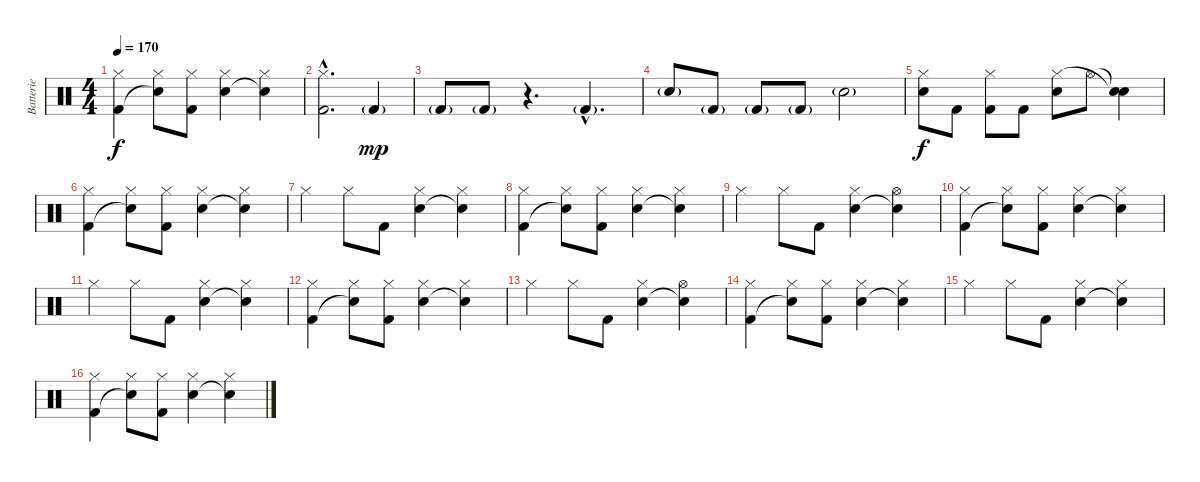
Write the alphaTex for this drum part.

\track ("Batterie" "Batterie") {instrument percussion}
\staff {score}
\articulation defaults
\ts (4 4)
\tempo 170
\clef neutral
\ks c
("Kick (hit) 2" "Hi-Hat (closed)").4{dy f} ("Snare (hit)"{t} "Hi-Hat (closed)").8 ("Kick (hit) 2" "Hi-Hat (closed)").8 ("Snare (hit) 2" "Hi-Hat (closed)").4 ("Snare (hit)"{t} "Hi-Hat (closed)").4 |
("Kick (hit) 2"{hac} "Hi-Hat (closed)"{hac}).2{d} "Kick (hit) 2"{g}.4{dy mp} |
"Kick (hit) 2"{g}.8 "Kick (hit) 2"{g}.8 r.4{d} "Kick (hit) 2"{g hac}.4{d} |
"Snare (hit) 2"{g}.8 "Kick (hit) 2"{g}.8 "Kick (hit) 2"{g}.8 "Kick (hit) 2"{g}.8 "Snare (hit) 2"{g}.2 |
("Snare (hit) 2" "Hi-Hat (closed)").8{dy f} "Kick (hit) 2".8 ("Kick (hit) 2" "Hi-Hat (closed)").8 "Kick (hit) 2".8 ("Snare (hit) 2" "Hi-Hat (closed)").8 "Hi-Hat (open)".8 ("Snare (hit)"{t} "Snare (hit)"{t}).4 |
("Kick (hit) 2" "Hi-Hat (closed)").4 ("Snare (hit)"{t} "Hi-Hat (closed)").8 ("Kick (hit) 2" "Hi-Hat (closed)").8 ("Snare (hit) 2" "Hi-Hat (closed)").4 ("Snare (hit)"{t} "Hi-Hat (closed)").4 |
"Hi-Hat (closed)".4 "Hi-Hat (closed)".8 "Kick (hit) 2".8 ("Snare (hit) 2" "Hi-Hat (closed)").4 ("Snare (hit)"{t} "Hi-Hat (closed)").4 |
("Kick (hit) 2" "Hi-Hat (closed)").4 ("Snare (hit)"{t} "Hi-Hat (closed)").8 ("Kick (hit) 2" "Hi-Hat (closed)").8 ("Snare (hit) 2" "Hi-Hat (closed)").4 ("Snare (hit)"{t} "Hi-Hat (closed)").4 |
"Hi-Hat (closed)".4 "Hi-Hat (closed)".8 "Kick (hit) 2".8 ("Snare (hit) 2" "Hi-Hat (closed)").4 ("Snare (hit)"{t} "Hi-Hat (open)").4 |
("Kick (hit) 2" "Hi-Hat (closed)").4 ("Snare (hit)"{t} "Hi-Hat (closed)").8 ("Kick (hit) 2" "Hi-Hat (closed)").8 ("Snare (hit) 2" "Hi-Hat (closed)").4 ("Snare (hit)"{t} "Hi-Hat (closed)").4 |
"Hi-Hat (closed)".4 "Hi-Hat (closed)".8 "Kick (hit) 2".8 ("Snare (hit) 2" "Hi-Hat (closed)").4 ("Snare (hit)"{t} "Hi-Hat (closed)").4 |
("Kick (hit) 2" "Hi-Hat (closed)").4 ("Snare (hit)"{t} "Hi-Hat (closed)").8 ("Kick (hit) 2" "Hi-Hat (closed)").8 ("Snare (hit) 2" "Hi-Hat (closed)").4 ("Snare (hit)"{t} "Hi-Hat (closed)").4 |
"Hi-Hat (closed)".4 "Hi-Hat (closed)".8 "Kick (hit) 2".8 ("Snare (hit) 2" "Hi-Hat (closed)").4 ("Snare (hit)"{t} "Hi-Hat (open)").4 |
("Kick (hit) 2" "Hi-Hat (closed)").4 ("Snare (hit)"{t} "Hi-Hat (closed)").8 ("Kick (hit) 2" "Hi-Hat (closed)").8 ("Snare (hit) 2" "Hi-Hat (closed)").4 ("Snare (hit)"{t} "Hi-Hat (closed)").4 |
"Hi-Hat (closed)".4 "Hi-Hat (closed)".8 "Kick (hit) 2".8 ("Snare (hit) 2" "Hi-Hat (closed)").4 ("Snare (hit)"{t} "Hi-Hat (closed)").4 |
("Kick (hit) 2" "Hi-Hat (closed)").4 ("Snare (hit)"{t} "Hi-Hat (closed)").8 ("Kick (hit) 2" "Hi-Hat (closed)").8 ("Snare (hit) 2" "Hi-Hat (closed)").4 ("Snare (hit)"{t} "Hi-Hat (closed)").4
